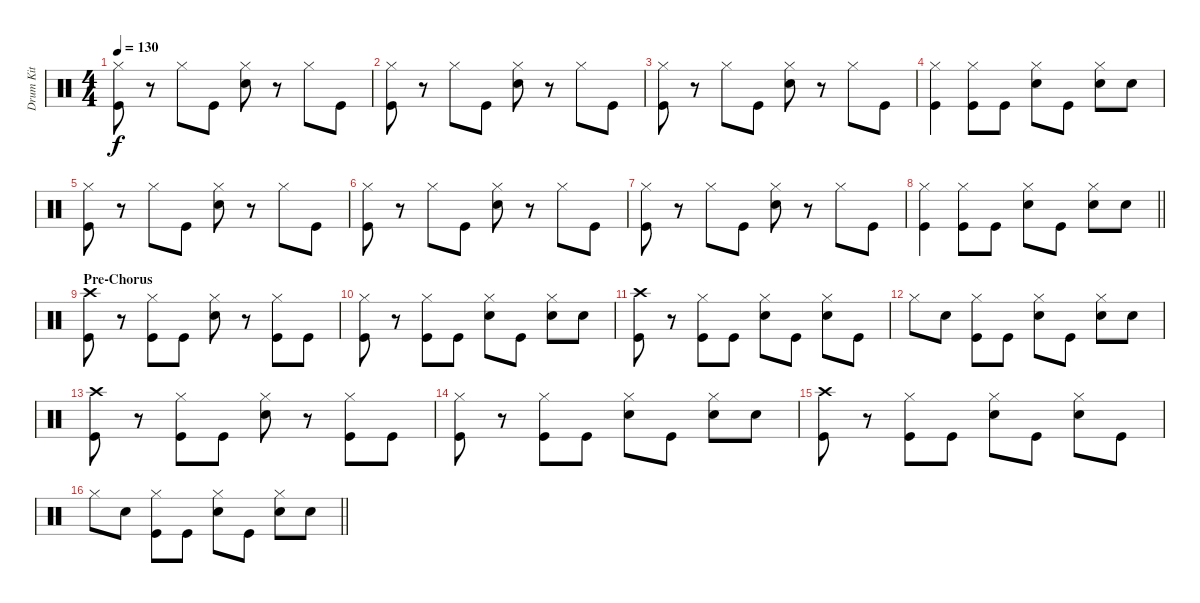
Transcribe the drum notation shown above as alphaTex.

\track ("Drum Kit" "Drum Kit") {instrument percussion}
\staff {score}
\articulation defaults
\ts (4 4)
\tempo 130
\clef neutral
\ks c
("Hi-Hat (closed)" "Kick (hit)").8{dy f} r.8 "Hi-Hat (closed)".8 "Kick (hit)".8 ("Hi-Hat (closed)" "Snare (hit) 2").8 r.8 "Hi-Hat (closed)".8 "Kick (hit)".8 |
("Hi-Hat (closed)" "Kick (hit)").8 r.8 "Hi-Hat (closed)".8 "Kick (hit)".8 ("Hi-Hat (closed)" "Snare (hit) 2").8 r.8 "Hi-Hat (closed)".8 "Kick (hit)".8 |
("Hi-Hat (closed)" "Kick (hit)").8 r.8 "Hi-Hat (closed)".8 "Kick (hit)".8 ("Hi-Hat (closed)" "Snare (hit) 2").8 r.8 "Hi-Hat (closed)".8 "Kick (hit)".8 |
("Hi-Hat (closed)" "Kick (hit)").4 ("Hi-Hat (closed)" "Kick (hit)").8 "Kick (hit)".8 ("Hi-Hat (closed)" "Snare (hit) 2").8 "Kick (hit)".8 ("Hi-Hat (closed)" "Snare (hit) 2").8 "Snare (hit) 2".8 |
("Hi-Hat (closed)" "Kick (hit)").8 r.8 "Hi-Hat (closed)".8 "Kick (hit)".8 ("Hi-Hat (closed)" "Snare (hit) 2").8 r.8 "Hi-Hat (closed)".8 "Kick (hit)".8 |
("Hi-Hat (closed)" "Kick (hit)").8 r.8 "Hi-Hat (closed)".8 "Kick (hit)".8 ("Hi-Hat (closed)" "Snare (hit) 2").8 r.8 "Hi-Hat (closed)".8 "Kick (hit)".8 |
("Hi-Hat (closed)" "Kick (hit)").8 r.8 "Hi-Hat (closed)".8 "Kick (hit)".8 ("Hi-Hat (closed)" "Snare (hit) 2").8 r.8 "Hi-Hat (closed)".8 "Kick (hit)".8 |
\barLineRight lightlight
("Hi-Hat (closed)" "Kick (hit)").4 ("Hi-Hat (closed)" "Kick (hit)").8 "Kick (hit)".8 ("Hi-Hat (closed)" "Snare (hit) 2").8 "Kick (hit)".8 ("Hi-Hat (closed)" "Snare (hit) 2").8 "Snare (hit) 2".8 |
\section ("" "Pre-Chorus")
("Crash high (hit)" "Kick (hit)").8 r.8 ("Hi-Hat (closed)" "Kick (hit)").8 "Kick (hit)".8 ("Hi-Hat (closed)" "Snare (hit) 2").8 r.8 ("Hi-Hat (closed)" "Kick (hit)").8 "Kick (hit)".8 |
("Hi-Hat (closed)" "Kick (hit)").8 r.8 ("Hi-Hat (closed)" "Kick (hit)").8 "Kick (hit)".8 ("Hi-Hat (closed)" "Snare (hit) 2").8 "Kick (hit)".8 ("Hi-Hat (closed)" "Snare (hit) 2").8 "Snare (hit) 2".8 |
("Crash high (hit)" "Kick (hit)").8 r.8 ("Hi-Hat (closed)" "Kick (hit)").8 "Kick (hit)".8 ("Hi-Hat (closed)" "Snare (hit) 2").8 "Kick (hit)".8 ("Hi-Hat (closed)" "Snare (hit) 2").8 "Kick (hit)".8 |
"Hi-Hat (closed)".8 "Snare (hit) 2".8 ("Hi-Hat (closed)" "Kick (hit)").8 "Kick (hit)".8 ("Hi-Hat (closed)" "Snare (hit) 2").8 "Kick (hit)".8 ("Hi-Hat (closed)" "Snare (hit) 2").8 "Snare (hit) 2".8 |
("Crash high (hit)" "Kick (hit)").8 r.8 ("Hi-Hat (closed)" "Kick (hit)").8 "Kick (hit)".8 ("Hi-Hat (closed)" "Snare (hit) 2").8 r.8 ("Hi-Hat (closed)" "Kick (hit)").8 "Kick (hit)".8 |
("Hi-Hat (closed)" "Kick (hit)").8 r.8 ("Hi-Hat (closed)" "Kick (hit)").8 "Kick (hit)".8 ("Hi-Hat (closed)" "Snare (hit) 2").8 "Kick (hit)".8 ("Hi-Hat (closed)" "Snare (hit) 2").8 "Snare (hit) 2".8 |
("Crash high (hit)" "Kick (hit)").8 r.8 ("Hi-Hat (closed)" "Kick (hit)").8 "Kick (hit)".8 ("Hi-Hat (closed)" "Snare (hit) 2").8 "Kick (hit)".8 ("Hi-Hat (closed)" "Snare (hit) 2").8 "Kick (hit)".8 |
\barLineRight lightlight "Hi-Hat (closed)".8 "Snare (hit) 2".8
("Hi-Hat (closed)" "Kick (hit)").8 "Kick (hit)".8 ("Hi-Hat (closed)" "Snare (hit) 2").8 "Kick (hit)".8 ("Hi-Hat (closed)" "Snare (hit) 2").8 "Snare (hit) 2".8
